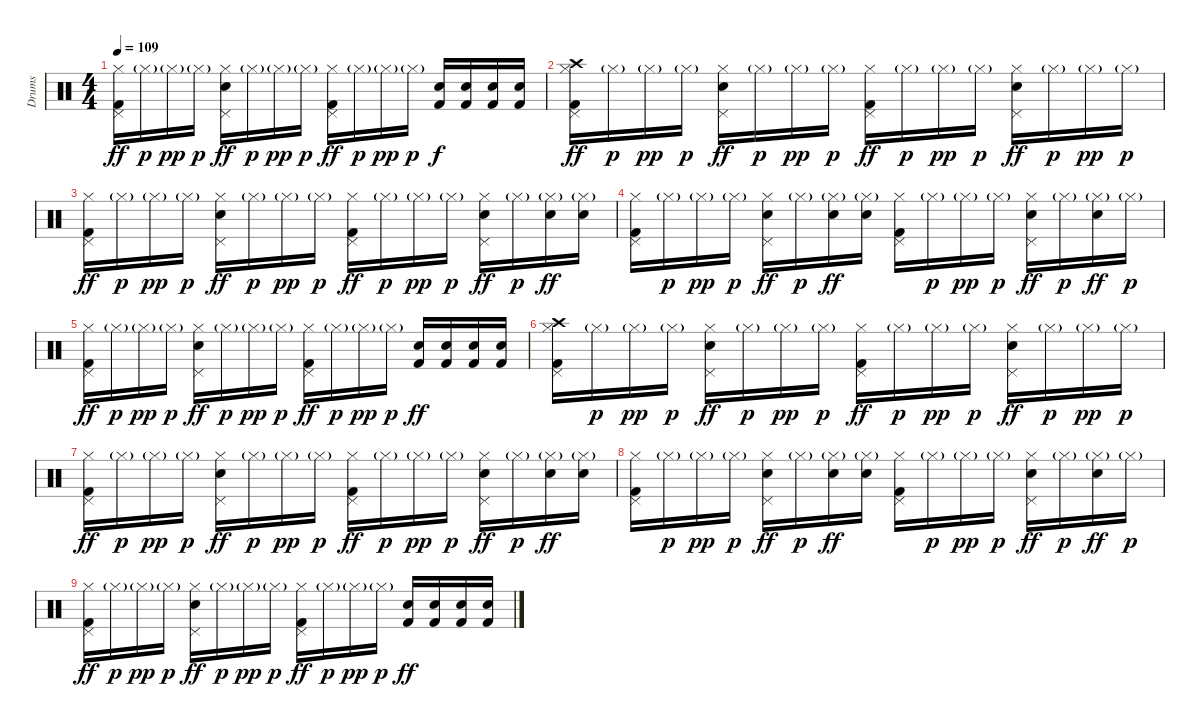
\track ("Drums" "Drums") {instrument percussion}
\staff {score}
\articulation defaults
\ts (4 4)
\tempo 109
\clef neutral
\ks c
("Hi-Hat (closed)" "Pedal Hi-Hat (hit)" "Kick (hit) 2").16{dy ff} "Hi-Hat (closed)"{g}.16{dy p} "Hi-Hat (closed)"{g}.16{dy pp} "Hi-Hat (closed)"{g}.16{dy p} ("Hi-Hat (closed)" "Pedal Hi-Hat (hit)" "Electric Snare (hit)").16{dy ff} "Hi-Hat (closed)"{g}.16{dy p} "Hi-Hat (closed)"{g}.16{dy pp} "Hi-Hat (closed)"{g}.16{dy p} ("Hi-Hat (closed)" "Pedal Hi-Hat (hit)" "Kick (hit) 2").16{dy ff} "Hi-Hat (closed)"{g}.16{dy p} "Hi-Hat (closed)"{g}.16{dy pp} "Hi-Hat (closed)"{g}.16{dy p} ("Kick (hit) 2" "Electric Snare (hit)").16{dy f} ("Kick (hit) 2" "Electric Snare (hit)").16 ("Kick (hit) 2" "Electric Snare (hit)").16 ("Kick (hit) 2" "Electric Snare (hit)").16 |
("Hi-Hat (closed)" "Pedal Hi-Hat (hit)" "Kick (hit) 2" "Crash high (hit)").16{dy ff} "Hi-Hat (closed)"{g}.16{dy p} "Hi-Hat (closed)"{g}.16{dy pp} "Hi-Hat (closed)"{g}.16{dy p} ("Hi-Hat (closed)" "Pedal Hi-Hat (hit)" "Electric Snare (hit)").16{dy ff} "Hi-Hat (closed)"{g}.16{dy p} "Hi-Hat (closed)"{g}.16{dy pp} "Hi-Hat (closed)"{g}.16{dy p} ("Hi-Hat (closed)" "Pedal Hi-Hat (hit)" "Kick (hit) 2").16{dy ff} "Hi-Hat (closed)"{g}.16{dy p} "Hi-Hat (closed)"{g}.16{dy pp} "Hi-Hat (closed)"{g}.16{dy p} ("Hi-Hat (closed)" "Pedal Hi-Hat (hit)" "Electric Snare (hit)").16{dy ff} "Hi-Hat (closed)"{g}.16{dy p} "Hi-Hat (closed)"{g}.16{dy pp} "Hi-Hat (closed)"{g}.16{dy p} |
("Hi-Hat (closed)" "Pedal Hi-Hat (hit)" "Kick (hit) 2").16{dy ff} "Hi-Hat (closed)"{g}.16{dy p} "Hi-Hat (closed)"{g}.16{dy pp} "Hi-Hat (closed)"{g}.16{dy p} ("Hi-Hat (closed)" "Pedal Hi-Hat (hit)" "Electric Snare (hit)").16{dy ff} "Hi-Hat (closed)"{g}.16{dy p} "Hi-Hat (closed)"{g}.16{dy pp} "Hi-Hat (closed)"{g}.16{dy p} ("Hi-Hat (closed)" "Pedal Hi-Hat (hit)" "Kick (hit) 2").16{dy ff} "Hi-Hat (closed)"{g}.16{dy p} "Hi-Hat (closed)"{g}.16{dy pp} "Hi-Hat (closed)"{g}.16{dy p} ("Hi-Hat (closed)" "Pedal Hi-Hat (hit)" "Electric Snare (hit)").16{dy ff} "Hi-Hat (closed)"{g}.16{dy p} ("Hi-Hat (closed)"{g} "Electric Snare (hit)").16{dy ff} ("Hi-Hat (closed)"{g} "Electric Snare (hit)").16 |
("Hi-Hat (closed)" "Pedal Hi-Hat (hit)" "Kick (hit) 2").16 "Hi-Hat (closed)"{g}.16{dy p} "Hi-Hat (closed)"{g}.16{dy pp} "Hi-Hat (closed)"{g}.16{dy p} ("Hi-Hat (closed)" "Pedal Hi-Hat (hit)" "Electric Snare (hit)").16{dy ff} "Hi-Hat (closed)"{g}.16{dy p} ("Hi-Hat (closed)"{g} "Electric Snare (hit)").16{dy ff} ("Hi-Hat (closed)"{g} "Electric Snare (hit)").16 ("Hi-Hat (closed)" "Pedal Hi-Hat (hit)" "Kick (hit) 2").16 "Hi-Hat (closed)"{g}.16{dy p} "Hi-Hat (closed)"{g}.16{dy pp} "Hi-Hat (closed)"{g}.16{dy p} ("Hi-Hat (closed)" "Pedal Hi-Hat (hit)" "Electric Snare (hit)").16{dy ff} "Hi-Hat (closed)"{g}.16{dy p} ("Hi-Hat (closed)"{g} "Electric Snare (hit)").16{dy ff} "Hi-Hat (closed)"{g}.16{dy p} |
("Hi-Hat (closed)" "Pedal Hi-Hat (hit)" "Kick (hit) 2").16{dy ff} "Hi-Hat (closed)"{g}.16{dy p} "Hi-Hat (closed)"{g}.16{dy pp} "Hi-Hat (closed)"{g}.16{dy p} ("Hi-Hat (closed)" "Pedal Hi-Hat (hit)" "Electric Snare (hit)").16{dy ff} "Hi-Hat (closed)"{g}.16{dy p} "Hi-Hat (closed)"{g}.16{dy pp} "Hi-Hat (closed)"{g}.16{dy p} ("Hi-Hat (closed)" "Pedal Hi-Hat (hit)" "Kick (hit) 2").16{dy ff} "Hi-Hat (closed)"{g}.16{dy p} "Hi-Hat (closed)"{g}.16{dy pp} "Hi-Hat (closed)"{g}.16{dy p} ("Kick (hit) 2" "Electric Snare (hit)").16{dy ff} ("Kick (hit) 2" "Electric Snare (hit)").16 ("Kick (hit) 2" "Electric Snare (hit)").16 ("Kick (hit) 2" "Electric Snare (hit)").16 |
("Hi-Hat (closed)" "Pedal Hi-Hat (hit)" "Kick (hit) 2" "Crash high (hit)").16{volume 0} "Hi-Hat (closed)"{g}.16{dy p} "Hi-Hat (closed)"{g}.16{dy pp} "Hi-Hat (closed)"{g}.16{dy p} ("Hi-Hat (closed)" "Pedal Hi-Hat (hit)" "Electric Snare (hit)").16{dy ff} "Hi-Hat (closed)"{g}.16{dy p} "Hi-Hat (closed)"{g}.16{dy pp} "Hi-Hat (closed)"{g}.16{dy p} ("Hi-Hat (closed)" "Pedal Hi-Hat (hit)" "Kick (hit) 2").16{dy ff} "Hi-Hat (closed)"{g}.16{dy p} "Hi-Hat (closed)"{g}.16{dy pp} "Hi-Hat (closed)"{g}.16{dy p} ("Hi-Hat (closed)" "Pedal Hi-Hat (hit)" "Electric Snare (hit)").16{dy ff} "Hi-Hat (closed)"{g}.16{dy p} "Hi-Hat (closed)"{g}.16{dy pp} "Hi-Hat (closed)"{g}.16{dy p} |
("Hi-Hat (closed)" "Pedal Hi-Hat (hit)" "Kick (hit) 2").16{dy ff} "Hi-Hat (closed)"{g}.16{dy p} "Hi-Hat (closed)"{g}.16{dy pp} "Hi-Hat (closed)"{g}.16{dy p} ("Hi-Hat (closed)" "Pedal Hi-Hat (hit)" "Electric Snare (hit)").16{dy ff} "Hi-Hat (closed)"{g}.16{dy p} "Hi-Hat (closed)"{g}.16{dy pp} "Hi-Hat (closed)"{g}.16{dy p} ("Hi-Hat (closed)" "Pedal Hi-Hat (hit)" "Kick (hit) 2").16{dy ff} "Hi-Hat (closed)"{g}.16{dy p} "Hi-Hat (closed)"{g}.16{dy pp} "Hi-Hat (closed)"{g}.16{dy p} ("Hi-Hat (closed)" "Pedal Hi-Hat (hit)" "Electric Snare (hit)").16{dy ff} "Hi-Hat (closed)"{g}.16{dy p} ("Hi-Hat (closed)"{g} "Electric Snare (hit)").16{dy ff} ("Hi-Hat (closed)"{g} "Electric Snare (hit)").16 |
("Hi-Hat (closed)" "Pedal Hi-Hat (hit)" "Kick (hit) 2").16 "Hi-Hat (closed)"{g}.16{dy p} "Hi-Hat (closed)"{g}.16{dy pp} "Hi-Hat (closed)"{g}.16{dy p} ("Hi-Hat (closed)" "Pedal Hi-Hat (hit)" "Electric Snare (hit)").16{dy ff} "Hi-Hat (closed)"{g}.16{dy p} ("Hi-Hat (closed)"{g} "Electric Snare (hit)").16{dy ff} ("Hi-Hat (closed)"{g} "Electric Snare (hit)").16 ("Hi-Hat (closed)" "Pedal Hi-Hat (hit)" "Kick (hit) 2").16 "Hi-Hat (closed)"{g}.16{dy p} "Hi-Hat (closed)"{g}.16{dy pp} "Hi-Hat (closed)"{g}.16{dy p} ("Hi-Hat (closed)" "Pedal Hi-Hat (hit)" "Electric Snare (hit)").16{dy ff} "Hi-Hat (closed)"{g}.16{dy p} ("Hi-Hat (closed)"{g} "Electric Snare (hit)").16{dy ff} "Hi-Hat (closed)"{g}.16{dy p} |
("Hi-Hat (closed)" "Pedal Hi-Hat (hit)" "Kick (hit) 2").16{dy ff} "Hi-Hat (closed)"{g}.16{dy p} "Hi-Hat (closed)"{g}.16{dy pp} "Hi-Hat (closed)"{g}.16{dy p} ("Hi-Hat (closed)" "Pedal Hi-Hat (hit)" "Electric Snare (hit)").16{dy ff} "Hi-Hat (closed)"{g}.16{dy p} "Hi-Hat (closed)"{g}.16{dy pp} "Hi-Hat (closed)"{g}.16{dy p} ("Hi-Hat (closed)" "Pedal Hi-Hat (hit)" "Kick (hit) 2").16{dy ff} "Hi-Hat (closed)"{g}.16{dy p} "Hi-Hat (closed)"{g}.16{dy pp} "Hi-Hat (closed)"{g}.16{dy p} ("Kick (hit) 2" "Electric Snare (hit)").16{dy ff} ("Kick (hit) 2" "Electric Snare (hit)").16 ("Kick (hit) 2" "Electric Snare (hit)").16 ("Kick (hit) 2" "Electric Snare (hit)").16
